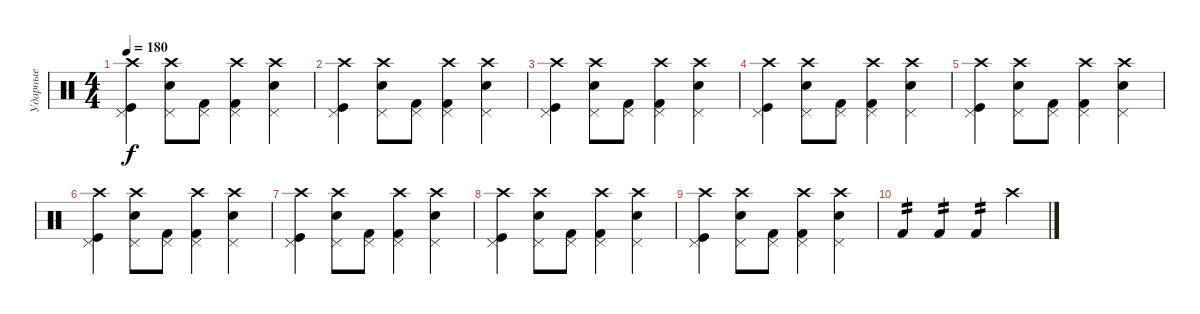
\track ("Ударные" "Ударные") {instrument percussion}
\staff {score}
\articulation defaults
\ts (4 4)
\tempo 180
\clef neutral
\ks c
("Crash high (hit)" "Pedal Hi-Hat (hit)" "Kick (hit)").4{dy f} ("Crash high (hit)" "Pedal Hi-Hat (hit)" "Electric Snare (hit)").8 ("Pedal Hi-Hat (hit)" "Kick (hit) 2").8 ("Crash high (hit)" "Pedal Hi-Hat (hit)" "Kick (hit) 2").4 ("Crash high (hit)" "Pedal Hi-Hat (hit)" "Electric Snare (hit)").4 |
("Crash high (hit)" "Pedal Hi-Hat (hit)" "Kick (hit)").4 ("Crash high (hit)" "Pedal Hi-Hat (hit)" "Electric Snare (hit)").8 ("Pedal Hi-Hat (hit)" "Kick (hit) 2").8 ("Crash high (hit)" "Pedal Hi-Hat (hit)" "Kick (hit) 2").4 ("Crash high (hit)" "Pedal Hi-Hat (hit)" "Electric Snare (hit)").4 |
("Crash high (hit)" "Pedal Hi-Hat (hit)" "Kick (hit)").4 ("Crash high (hit)" "Pedal Hi-Hat (hit)" "Electric Snare (hit)").8 ("Pedal Hi-Hat (hit)" "Kick (hit) 2").8 ("Crash high (hit)" "Pedal Hi-Hat (hit)" "Kick (hit) 2").4 ("Crash high (hit)" "Pedal Hi-Hat (hit)" "Electric Snare (hit)").4 |
("Crash high (hit)" "Pedal Hi-Hat (hit)" "Kick (hit)").4 ("Crash high (hit)" "Pedal Hi-Hat (hit)" "Electric Snare (hit)").8 ("Pedal Hi-Hat (hit)" "Kick (hit) 2").8 ("Crash high (hit)" "Pedal Hi-Hat (hit)" "Kick (hit) 2").4 ("Crash high (hit)" "Pedal Hi-Hat (hit)" "Electric Snare (hit)").4 |
("Crash high (hit)" "Pedal Hi-Hat (hit)" "Kick (hit)").4 ("Crash high (hit)" "Pedal Hi-Hat (hit)" "Electric Snare (hit)").8 ("Pedal Hi-Hat (hit)" "Kick (hit) 2").8 ("Crash high (hit)" "Pedal Hi-Hat (hit)" "Kick (hit) 2").4 ("Crash high (hit)" "Pedal Hi-Hat (hit)" "Electric Snare (hit)").4 |
("Crash high (hit)" "Pedal Hi-Hat (hit)" "Kick (hit)").4 ("Crash high (hit)" "Pedal Hi-Hat (hit)" "Electric Snare (hit)").8 ("Pedal Hi-Hat (hit)" "Kick (hit) 2").8 ("Crash high (hit)" "Pedal Hi-Hat (hit)" "Kick (hit) 2").4 ("Crash high (hit)" "Pedal Hi-Hat (hit)" "Electric Snare (hit)").4 |
("Crash high (hit)" "Pedal Hi-Hat (hit)" "Kick (hit)").4 ("Crash high (hit)" "Pedal Hi-Hat (hit)" "Electric Snare (hit)").8 ("Pedal Hi-Hat (hit)" "Kick (hit) 2").8 ("Crash high (hit)" "Pedal Hi-Hat (hit)" "Kick (hit) 2").4 ("Crash high (hit)" "Pedal Hi-Hat (hit)" "Electric Snare (hit)").4 |
("Crash high (hit)" "Pedal Hi-Hat (hit)" "Kick (hit)").4 ("Crash high (hit)" "Pedal Hi-Hat (hit)" "Electric Snare (hit)").8 ("Pedal Hi-Hat (hit)" "Kick (hit) 2").8 ("Crash high (hit)" "Pedal Hi-Hat (hit)" "Kick (hit) 2").4 ("Crash high (hit)" "Pedal Hi-Hat (hit)" "Electric Snare (hit)").4 |
("Crash high (hit)" "Pedal Hi-Hat (hit)" "Kick (hit)").4 ("Crash high (hit)" "Pedal Hi-Hat (hit)" "Electric Snare (hit)").8 ("Pedal Hi-Hat (hit)" "Kick (hit) 2").8 ("Crash high (hit)" "Pedal Hi-Hat (hit)" "Kick (hit) 2").4 ("Crash high (hit)" "Pedal Hi-Hat (hit)" "Electric Snare (hit)").4 |
"Kick (hit) 2".4{tp 2} "Kick (hit) 2".4{tp 2} "Kick (hit) 2".4{tp 2} "Crash high (hit)".4
